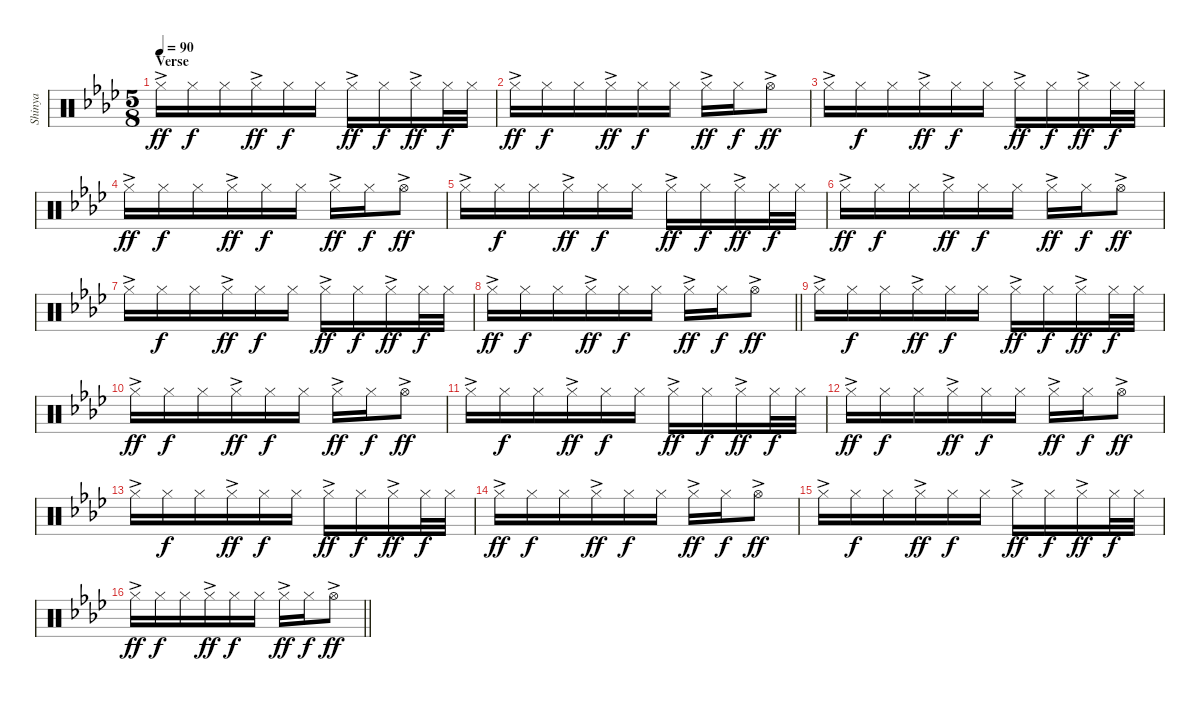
\track ("Shinya" "Shinya") {instrument percussion}
\staff {score}
\articulation defaults
\ts (5 8)
\section ("" "Verse")
\tempo 90
\clef neutral
\ks fminor "Hi-Hat (closed)"{ac}.16{dy ff} "Hi-Hat (closed)".16{dy f} "Hi-Hat (closed)".16 "Hi-Hat (closed)"{ac}.16{dy ff} "Hi-Hat (closed)".16{dy f} "Hi-Hat (closed)".16 "Hi-Hat (closed)"{ac}.16{dy ff} "Hi-Hat (closed)".16{dy f} "Hi-Hat (closed)"{ac}.16{dy ff} "Hi-Hat (closed)".32{dy f} "Hi-Hat (closed)".32
|
"Hi-Hat (closed)"{ac}.16{dy ff} "Hi-Hat (closed)".16{dy f} "Hi-Hat (closed)".16 "Hi-Hat (closed)"{ac}.16{dy ff} "Hi-Hat (closed)".16{dy f} "Hi-Hat (closed)".16 "Hi-Hat (closed)"{ac}.16{dy ff} "Hi-Hat (closed)".16{dy f} "Hi-Hat (open)"{ac}.8{dy ff} |
"Hi-Hat (closed)"{ac}.16 "Hi-Hat (closed)".16{dy f} "Hi-Hat (closed)".16 "Hi-Hat (closed)"{ac}.16{dy ff} "Hi-Hat (closed)".16{dy f} "Hi-Hat (closed)".16 "Hi-Hat (closed)"{ac}.16{dy ff} "Hi-Hat (closed)".16{dy f} "Hi-Hat (closed)"{ac}.16{dy ff} "Hi-Hat (closed)".32{dy f} "Hi-Hat (closed)".32 |
"Hi-Hat (closed)"{ac}.16{dy ff} "Hi-Hat (closed)".16{dy f} "Hi-Hat (closed)".16 "Hi-Hat (closed)"{ac}.16{dy ff} "Hi-Hat (closed)".16{dy f} "Hi-Hat (closed)".16 "Hi-Hat (closed)"{ac}.16{dy ff} "Hi-Hat (closed)".16{dy f} "Hi-Hat (open)"{ac}.8{dy ff} |
"Hi-Hat (closed)"{ac}.16 "Hi-Hat (closed)".16{dy f} "Hi-Hat (closed)".16 "Hi-Hat (closed)"{ac}.16{dy ff} "Hi-Hat (closed)".16{dy f} "Hi-Hat (closed)".16 "Hi-Hat (closed)"{ac}.16{dy ff} "Hi-Hat (closed)".16{dy f} "Hi-Hat (closed)"{ac}.16{dy ff} "Hi-Hat (closed)".32{dy f} "Hi-Hat (closed)".32 |
"Hi-Hat (closed)"{ac}.16{dy ff} "Hi-Hat (closed)".16{dy f} "Hi-Hat (closed)".16 "Hi-Hat (closed)"{ac}.16{dy ff} "Hi-Hat (closed)".16{dy f} "Hi-Hat (closed)".16 "Hi-Hat (closed)"{ac}.16{dy ff} "Hi-Hat (closed)".16{dy f} "Hi-Hat (open)"{ac}.8{dy ff} |
"Hi-Hat (closed)"{ac}.16 "Hi-Hat (closed)".16{dy f} "Hi-Hat (closed)".16 "Hi-Hat (closed)"{ac}.16{dy ff} "Hi-Hat (closed)".16{dy f} "Hi-Hat (closed)".16 "Hi-Hat (closed)"{ac}.16{dy ff} "Hi-Hat (closed)".16{dy f} "Hi-Hat (closed)"{ac}.16{dy ff} "Hi-Hat (closed)".32{dy f} "Hi-Hat (closed)".32 |
\barLineRight lightlight "Hi-Hat (closed)"{ac}.16{dy ff} "Hi-Hat (closed)".16{dy f} "Hi-Hat (closed)".16 "Hi-Hat (closed)"{ac}.16{dy ff} "Hi-Hat (closed)".16{dy f} "Hi-Hat (closed)".16 "Hi-Hat (closed)"{ac}.16{dy ff} "Hi-Hat (closed)".16{dy f} "Hi-Hat (open)"{ac}.8{dy ff}
|
"Hi-Hat (closed)"{ac}.16 "Hi-Hat (closed)".16{dy f} "Hi-Hat (closed)".16 "Hi-Hat (closed)"{ac}.16{dy ff} "Hi-Hat (closed)".16{dy f} "Hi-Hat (closed)".16 "Hi-Hat (closed)"{ac}.16{dy ff} "Hi-Hat (closed)".16{dy f} "Hi-Hat (closed)"{ac}.16{dy ff} "Hi-Hat (closed)".32{dy f} "Hi-Hat (closed)".32 |
"Hi-Hat (closed)"{ac}.16{dy ff} "Hi-Hat (closed)".16{dy f} "Hi-Hat (closed)".16 "Hi-Hat (closed)"{ac}.16{dy ff} "Hi-Hat (closed)".16{dy f} "Hi-Hat (closed)".16 "Hi-Hat (closed)"{ac}.16{dy ff} "Hi-Hat (closed)".16{dy f} "Hi-Hat (open)"{ac}.8{dy ff} |
"Hi-Hat (closed)"{ac}.16 "Hi-Hat (closed)".16{dy f} "Hi-Hat (closed)".16 "Hi-Hat (closed)"{ac}.16{dy ff} "Hi-Hat (closed)".16{dy f} "Hi-Hat (closed)".16 "Hi-Hat (closed)"{ac}.16{dy ff} "Hi-Hat (closed)".16{dy f} "Hi-Hat (closed)"{ac}.16{dy ff} "Hi-Hat (closed)".32{dy f} "Hi-Hat (closed)".32 |
"Hi-Hat (closed)"{ac}.16{dy ff} "Hi-Hat (closed)".16{dy f} "Hi-Hat (closed)".16 "Hi-Hat (closed)"{ac}.16{dy ff} "Hi-Hat (closed)".16{dy f} "Hi-Hat (closed)".16 "Hi-Hat (closed)"{ac}.16{dy ff} "Hi-Hat (closed)".16{dy f} "Hi-Hat (open)"{ac}.8{dy ff} |
"Hi-Hat (closed)"{ac}.16 "Hi-Hat (closed)".16{dy f} "Hi-Hat (closed)".16 "Hi-Hat (closed)"{ac}.16{dy ff} "Hi-Hat (closed)".16{dy f} "Hi-Hat (closed)".16 "Hi-Hat (closed)"{ac}.16{dy ff} "Hi-Hat (closed)".16{dy f} "Hi-Hat (closed)"{ac}.16{dy ff} "Hi-Hat (closed)".32{dy f} "Hi-Hat (closed)".32 |
"Hi-Hat (closed)"{ac}.16{dy ff} "Hi-Hat (closed)".16{dy f} "Hi-Hat (closed)".16 "Hi-Hat (closed)"{ac}.16{dy ff} "Hi-Hat (closed)".16{dy f} "Hi-Hat (closed)".16 "Hi-Hat (closed)"{ac}.16{dy ff} "Hi-Hat (closed)".16{dy f} "Hi-Hat (open)"{ac}.8{dy ff} |
"Hi-Hat (closed)"{ac}.16 "Hi-Hat (closed)".16{dy f} "Hi-Hat (closed)".16 "Hi-Hat (closed)"{ac}.16{dy ff} "Hi-Hat (closed)".16{dy f} "Hi-Hat (closed)".16 "Hi-Hat (closed)"{ac}.16{dy ff} "Hi-Hat (closed)".16{dy f} "Hi-Hat (closed)"{ac}.16{dy ff} "Hi-Hat (closed)".32{dy f} "Hi-Hat (closed)".32 |
\barLineRight lightlight "Hi-Hat (closed)"{ac}.16{dy ff} "Hi-Hat (closed)".16{dy f} "Hi-Hat (closed)".16 "Hi-Hat (closed)"{ac}.16{dy ff} "Hi-Hat (closed)".16{dy f} "Hi-Hat (closed)".16 "Hi-Hat (closed)"{ac}.16{dy ff} "Hi-Hat (closed)".16{dy f} "Hi-Hat (open)"{ac}.8{dy ff}
